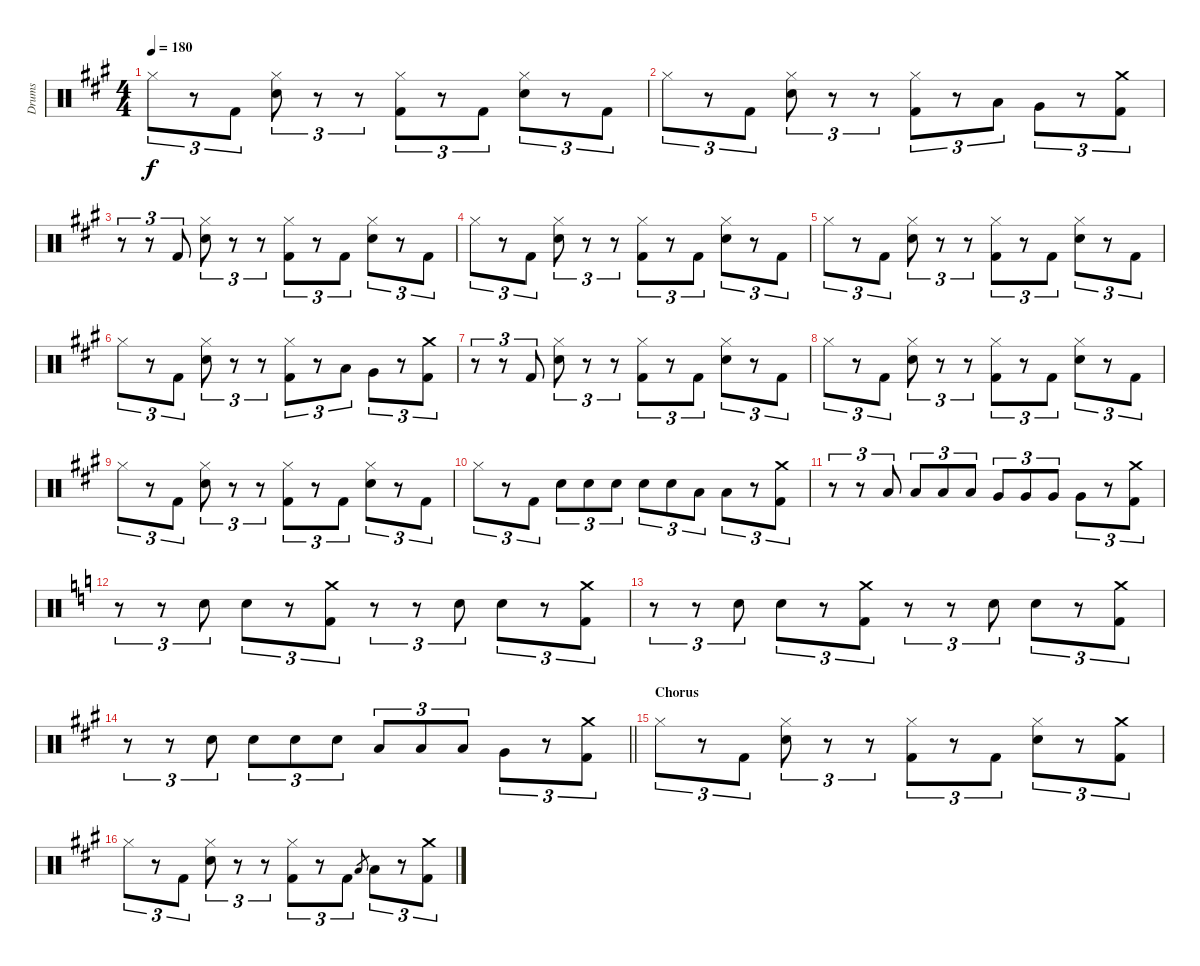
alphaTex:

\track ("Drums" "Drums") {instrument percussion}
\staff {score}
\articulation defaults
\ts (4 4)
\tempo 180
\clef neutral
\ks a "Hi-Hat (closed)".8{tu (3 2) dy f}
r.8{tu (3 2)} "Kick (hit) 2".8{tu (3 2)} ("Hi-Hat (closed)" "Snare (hit) 2").8{tu (3 2)} r.8{tu (3 2)} r.8{tu (3 2)} ("Hi-Hat (closed)" "Kick (hit) 2").8{tu (3 2)} r.8{tu (3 2)} "Kick (hit) 2".8{tu (3 2)} ("Hi-Hat (closed)" "Snare (hit) 2").8{tu (3 2)} r.8{tu (3 2)} "Kick (hit) 2".8{tu (3 2)} |
"Hi-Hat (closed)".8{tu (3 2)} r.8{tu (3 2)} "Kick (hit) 2".8{tu (3 2)} ("Hi-Hat (closed)" "Snare (hit) 2").8{tu (3 2)} r.8{tu (3 2)} r.8{tu (3 2)} ("Hi-Hat (closed)" "Kick (hit) 2").8{tu (3 2)} r.8{tu (3 2)} "Low Tom (hit)".8{tu (3 2)} "Very Low Tom (hit)".8{tu (3 2)} r.8{tu (3 2)} ("Crash medium (hit)" "Kick (hit) 2").8{tu (3 2)} |
r.8{tu (3 2)} r.8{tu (3 2)} "Kick (hit) 2".8{tu (3 2)} ("Hi-Hat (closed)" "Snare (hit) 2").8{tu (3 2)} r.8{tu (3 2)} r.8{tu (3 2)} ("Hi-Hat (closed)" "Kick (hit) 2").8{tu (3 2)} r.8{tu (3 2)} "Kick (hit) 2".8{tu (3 2)} ("Hi-Hat (closed)" "Snare (hit) 2").8{tu (3 2)} r.8{tu (3 2)} "Kick (hit) 2".8{tu (3 2)} |
"Hi-Hat (closed)".8{tu (3 2)} r.8{tu (3 2)} "Kick (hit) 2".8{tu (3 2)} ("Hi-Hat (closed)" "Snare (hit) 2").8{tu (3 2)} r.8{tu (3 2)} r.8{tu (3 2)} ("Hi-Hat (closed)" "Kick (hit) 2").8{tu (3 2)} r.8{tu (3 2)} "Kick (hit) 2".8{tu (3 2)} ("Hi-Hat (closed)" "Snare (hit) 2").8{tu (3 2)} r.8{tu (3 2)} "Kick (hit) 2".8{tu (3 2)} |
"Hi-Hat (closed)".8{tu (3 2)} r.8{tu (3 2)} "Kick (hit) 2".8{tu (3 2)} ("Hi-Hat (closed)" "Snare (hit) 2").8{tu (3 2)} r.8{tu (3 2)} r.8{tu (3 2)} ("Hi-Hat (closed)" "Kick (hit) 2").8{tu (3 2)} r.8{tu (3 2)} "Kick (hit) 2".8{tu (3 2)} ("Hi-Hat (closed)" "Snare (hit) 2").8{tu (3 2)} r.8{tu (3 2)} "Kick (hit) 2".8{tu (3 2)} |
"Hi-Hat (closed)".8{tu (3 2)} r.8{tu (3 2)} "Kick (hit) 2".8{tu (3 2)} ("Hi-Hat (closed)" "Snare (hit) 2").8{tu (3 2)} r.8{tu (3 2)} r.8{tu (3 2)} ("Hi-Hat (closed)" "Kick (hit) 2").8{tu (3 2)} r.8{tu (3 2)} "Low Tom (hit)".8{tu (3 2)} "Very Low Tom (hit)".8{tu (3 2)} r.8{tu (3 2)} ("Crash medium (hit)" "Kick (hit) 2").8{tu (3 2)} |
r.8{tu (3 2)} r.8{tu (3 2)} "Kick (hit) 2".8{tu (3 2)} ("Hi-Hat (closed)" "Snare (hit) 2").8{tu (3 2)} r.8{tu (3 2)} r.8{tu (3 2)} ("Hi-Hat (closed)" "Kick (hit) 2").8{tu (3 2)} r.8{tu (3 2)} "Kick (hit) 2".8{tu (3 2)} ("Hi-Hat (closed)" "Snare (hit) 2").8{tu (3 2)} r.8{tu (3 2)} "Kick (hit) 2".8{tu (3 2)} |
"Hi-Hat (closed)".8{tu (3 2)} r.8{tu (3 2)} "Kick (hit) 2".8{tu (3 2)} ("Hi-Hat (closed)" "Snare (hit) 2").8{tu (3 2)} r.8{tu (3 2)} r.8{tu (3 2)} ("Hi-Hat (closed)" "Kick (hit) 2").8{tu (3 2)} r.8{tu (3 2)} "Kick (hit) 2".8{tu (3 2)} ("Hi-Hat (closed)" "Snare (hit) 2").8{tu (3 2)} r.8{tu (3 2)} "Kick (hit) 2".8{tu (3 2)} |
"Hi-Hat (closed)".8{tu (3 2)} r.8{tu (3 2)} "Kick (hit) 2".8{tu (3 2)} ("Hi-Hat (closed)" "Snare (hit) 2").8{tu (3 2)} r.8{tu (3 2)} r.8{tu (3 2)} ("Hi-Hat (closed)" "Kick (hit) 2").8{tu (3 2)} r.8{tu (3 2)} "Kick (hit) 2".8{tu (3 2)} ("Hi-Hat (closed)" "Snare (hit) 2").8{tu (3 2)} r.8{tu (3 2)} "Kick (hit) 2".8{tu (3 2)} |
"Hi-Hat (closed)".8{tu (3 2)} r.8{tu (3 2)} "Kick (hit) 2".8{tu (3 2)} "Snare (hit) 2".8{tu (3 2)} "Snare (hit) 2".8{tu (3 2)} "Snare (hit) 2".8{tu (3 2)} "Snare (hit) 2".8{tu (3 2)} "Snare (hit) 2".8{tu (3 2)} "Low Tom (hit)".8{tu (3 2)} "Low Tom (hit)".8{tu (3 2)} r.8{tu (3 2)} ("Crash medium (hit)" "Kick (hit) 2").8{tu (3 2)} |
r.8{tu (3 2)} r.8{tu (3 2)} "Low Tom (hit)".8{tu (3 2)} "Low Tom (hit)".8{tu (3 2)} "Low Tom (hit)".8{tu (3 2)} "Low Tom (hit)".8{tu (3 2)} "Very Low Tom (hit)".8{tu (3 2)} "Very Low Tom (hit)".8{tu (3 2)} "Very Low Tom (hit)".8{tu (3 2)} "Very Low Tom (hit)".8{tu (3 2)} r.8{tu (3 2)} ("Crash medium (hit)" "Kick (hit) 2").8{tu (3 2)} |
\ks c
r.8{tu (3 2)} r.8{tu (3 2)} "Snare (hit) 2".8{tu (3 2)} "Snare (hit) 2".8{tu (3 2)} r.8{tu (3 2)} ("Crash medium (hit)" "Kick (hit) 2").8{tu (3 2)} r.8{tu (3 2)} r.8{tu (3 2)} "Snare (hit) 2".8{tu (3 2)} "Snare (hit) 2".8{tu (3 2)} r.8{tu (3 2)} ("Crash medium (hit)" "Kick (hit) 2").8{tu (3 2)} |
r.8{tu (3 2)} r.8{tu (3 2)} "Snare (hit) 2".8{tu (3 2)} "Snare (hit) 2".8{tu (3 2)} r.8{tu (3 2)} ("Crash medium (hit)" "Kick (hit) 2").8{tu (3 2)} r.8{tu (3 2)} r.8{tu (3 2)} "Snare (hit) 2".8{tu (3 2)} "Snare (hit) 2".8{tu (3 2)} r.8{tu (3 2)} ("Crash medium (hit)" "Kick (hit) 2").8{tu (3 2)} |
\barLineRight lightlight
\ks a
r.8{tu (3 2)} r.8{tu (3 2)} "Snare (hit) 2".8{tu (3 2)} "Snare (hit) 2".8{tu (3 2)} "Snare (hit) 2".8{tu (3 2)} "Snare (hit) 2".8{tu (3 2)} "Low Tom (hit)".8{tu (3 2)} "Low Tom (hit)".8{tu (3 2)} "Low Tom (hit)".8{tu (3 2)} "Very Low Tom (hit)".8{tu (3 2)} r.8{tu (3 2)} ("Crash medium (hit)" "Kick (hit) 2").8{tu (3 2)} |
\section ("" "Chorus")
"Hi-Hat (closed)".8{tu (3 2)} r.8{tu (3 2)} "Kick (hit) 2".8{tu (3 2)} ("Hi-Hat (closed)" "Snare (hit) 2").8{tu (3 2)} r.8{tu (3 2)} r.8{tu (3 2)} ("Hi-Hat (closed)" "Kick (hit) 2").8{tu (3 2)} r.8{tu (3 2)} "Kick (hit) 2".8{tu (3 2)} ("Hi-Hat (closed)" "Snare (hit) 2").8{tu (3 2)} r.8{tu (3 2)} ("Crash medium (hit)" "Kick (hit) 2").8{tu (3 2)} |
"Hi-Hat (closed)".8{tu (3 2)} r.8{tu (3 2)} "Kick (hit) 2".8{tu (3 2)} ("Hi-Hat (closed)" "Snare (hit) 2").8{tu (3 2)} r.8{tu (3 2)} r.8{tu (3 2)} ("Hi-Hat (closed)" "Kick (hit) 2").8{tu (3 2)} r.8{tu (3 2)} "Kick (hit) 2".8{tu (3 2)} "Low Tom (hit)".8{gr} "Low Floor Tom (hit)".8{tu (3 2)} r.8{tu (3 2)} ("Crash medium (hit)" "Kick (hit) 2").8{tu (3 2)}
